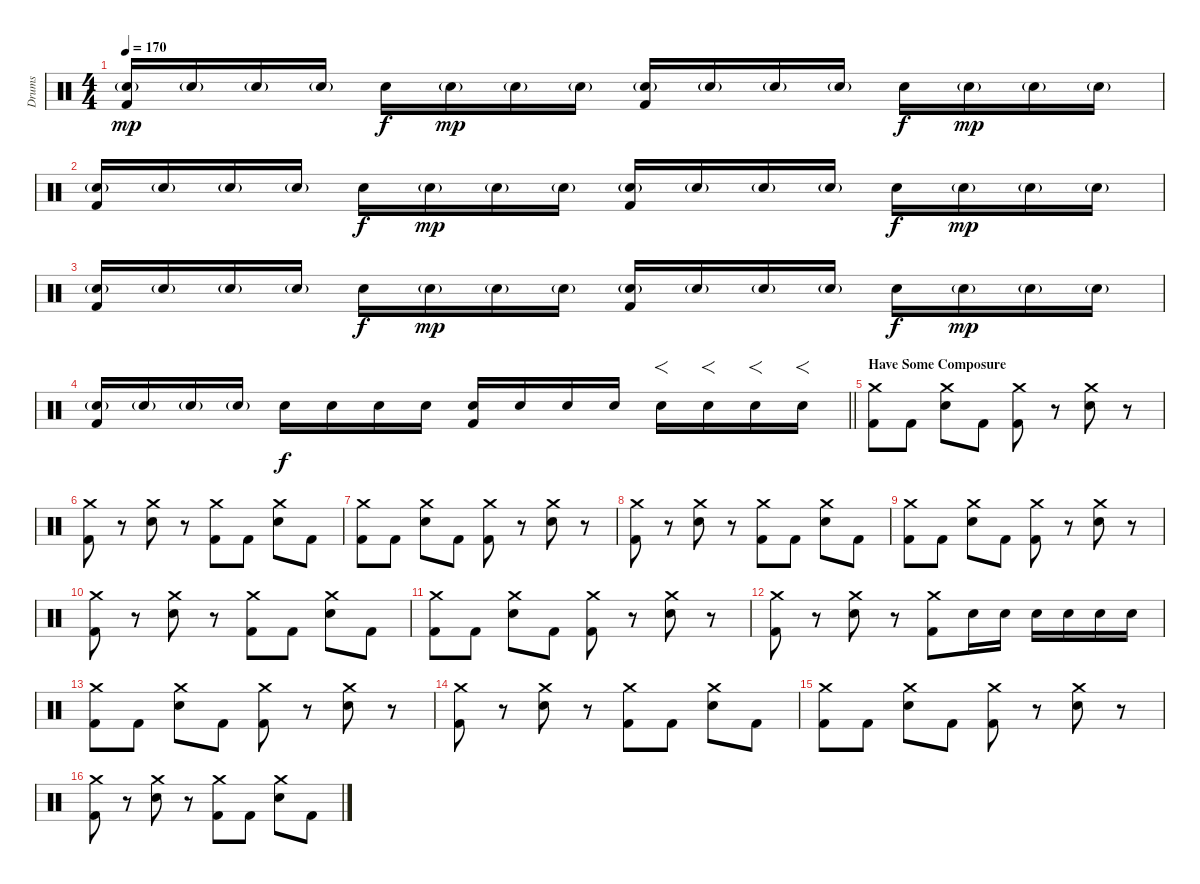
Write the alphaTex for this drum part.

\track ("Drums" "Drums") {instrument percussion}
\staff {score}
\articulation defaults
\ts (4 4)
\tempo 170
\clef neutral
\ks c
("Electric Snare (hit)"{g} "Kick (hit) 2").16{dy mp} "Electric Snare (hit)"{g}.16 "Electric Snare (hit)"{g}.16 "Electric Snare (hit)"{g}.16 "Electric Snare (hit)".16{dy f} "Electric Snare (hit)"{g}.16{dy mp} "Electric Snare (hit)"{g}.16 "Electric Snare (hit)"{g}.16 ("Electric Snare (hit)"{g} "Kick (hit) 2").16 "Electric Snare (hit)"{g}.16 "Electric Snare (hit)"{g}.16 "Electric Snare (hit)"{g}.16 "Electric Snare (hit)".16{dy f} "Electric Snare (hit)"{g}.16{dy mp} "Electric Snare (hit)"{g}.16 "Electric Snare (hit)"{g}.16 |
("Electric Snare (hit)"{g} "Kick (hit) 2").16 "Electric Snare (hit)"{g}.16 "Electric Snare (hit)"{g}.16 "Electric Snare (hit)"{g}.16 "Electric Snare (hit)".16{dy f} "Electric Snare (hit)"{g}.16{dy mp} "Electric Snare (hit)"{g}.16 "Electric Snare (hit)"{g}.16 ("Electric Snare (hit)"{g} "Kick (hit) 2").16 "Electric Snare (hit)"{g}.16 "Electric Snare (hit)"{g}.16 "Electric Snare (hit)"{g}.16 "Electric Snare (hit)".16{dy f} "Electric Snare (hit)"{g}.16{dy mp} "Electric Snare (hit)"{g}.16 "Electric Snare (hit)"{g}.16 |
("Electric Snare (hit)"{g} "Kick (hit) 2").16 "Electric Snare (hit)"{g}.16 "Electric Snare (hit)"{g}.16 "Electric Snare (hit)"{g}.16 "Electric Snare (hit)".16{dy f} "Electric Snare (hit)"{g}.16{dy mp} "Electric Snare (hit)"{g}.16 "Electric Snare (hit)"{g}.16 ("Electric Snare (hit)"{g} "Kick (hit) 2").16 "Electric Snare (hit)"{g}.16 "Electric Snare (hit)"{g}.16 "Electric Snare (hit)"{g}.16 "Electric Snare (hit)".16{dy f} "Electric Snare (hit)"{g}.16{dy mp} "Electric Snare (hit)"{g}.16 "Electric Snare (hit)"{g}.16 |
\barLineRight lightlight
("Electric Snare (hit)"{g} "Kick (hit) 2").16 "Electric Snare (hit)"{g}.16 "Electric Snare (hit)"{g}.16 "Electric Snare (hit)"{g}.16 "Electric Snare (hit)".16{dy f} "Electric Snare (hit)".16 "Electric Snare (hit)".16 "Electric Snare (hit)".16 ("Electric Snare (hit)" "Kick (hit) 2").16 "Electric Snare (hit)".16 "Electric Snare (hit)".16 "Electric Snare (hit)".16 "Electric Snare (hit)".16{f} "Electric Snare (hit)".16{f} "Electric Snare (hit)".16{f} "Electric Snare (hit)".16{f} |
\section ("" "Have Some Composure")
("Crash medium (hit)" "Kick (hit) 2").8 "Kick (hit) 2".8 ("Crash medium (hit)" "Electric Snare (hit)").8 "Kick (hit) 2".8 ("Crash medium (hit)" "Kick (hit) 2").8 r.8 ("Crash medium (hit)" "Electric Snare (hit)").8 r.8 |
("Crash medium (hit)" "Kick (hit) 2").8 r.8 ("Crash medium (hit)" "Electric Snare (hit)").8 r.8 ("Crash medium (hit)" "Kick (hit) 2").8 "Kick (hit) 2".8 ("Crash medium (hit)" "Electric Snare (hit)").8 "Kick (hit) 2".8 |
("Crash medium (hit)" "Kick (hit) 2").8 "Kick (hit) 2".8 ("Crash medium (hit)" "Electric Snare (hit)").8 "Kick (hit) 2".8 ("Crash medium (hit)" "Kick (hit) 2").8 r.8 ("Crash medium (hit)" "Electric Snare (hit)").8 r.8 |
("Crash medium (hit)" "Kick (hit) 2").8 r.8 ("Crash medium (hit)" "Electric Snare (hit)").8 r.8 ("Crash medium (hit)" "Kick (hit) 2").8 "Kick (hit) 2".8 ("Crash medium (hit)" "Electric Snare (hit)").8 "Kick (hit) 2".8 |
("Crash medium (hit)" "Kick (hit) 2").8 "Kick (hit) 2".8 ("Crash medium (hit)" "Electric Snare (hit)").8 "Kick (hit) 2".8 ("Crash medium (hit)" "Kick (hit) 2").8 r.8 ("Crash medium (hit)" "Electric Snare (hit)").8 r.8 |
("Crash medium (hit)" "Kick (hit) 2").8 r.8 ("Crash medium (hit)" "Electric Snare (hit)").8 r.8 ("Crash medium (hit)" "Kick (hit) 2").8 "Kick (hit) 2".8 ("Crash medium (hit)" "Electric Snare (hit)").8 "Kick (hit) 2".8 |
("Crash medium (hit)" "Kick (hit) 2").8 "Kick (hit) 2".8 ("Crash medium (hit)" "Electric Snare (hit)").8 "Kick (hit) 2".8 ("Crash medium (hit)" "Kick (hit) 2").8 r.8 ("Crash medium (hit)" "Electric Snare (hit)").8 r.8 |
("Crash medium (hit)" "Kick (hit) 2").8 r.8 ("Crash medium (hit)" "Electric Snare (hit)").8 r.8 ("Crash medium (hit)" "Kick (hit) 2").8 "Electric Snare (hit)".16 "Electric Snare (hit)".16 "Electric Snare (hit)".16 "Electric Snare (hit)".16 "Electric Snare (hit)".16 "Electric Snare (hit)".16 |
("Crash medium (hit)" "Kick (hit) 2").8 "Kick (hit) 2".8 ("Crash medium (hit)" "Electric Snare (hit)").8 "Kick (hit) 2".8 ("Crash medium (hit)" "Kick (hit) 2").8 r.8 ("Crash medium (hit)" "Electric Snare (hit)").8 r.8 |
("Crash medium (hit)" "Kick (hit) 2").8 r.8 ("Crash medium (hit)" "Electric Snare (hit)").8 r.8 ("Crash medium (hit)" "Kick (hit) 2").8 "Kick (hit) 2".8 ("Crash medium (hit)" "Electric Snare (hit)").8 "Kick (hit) 2".8 |
("Crash medium (hit)" "Kick (hit) 2").8 "Kick (hit) 2".8 ("Crash medium (hit)" "Electric Snare (hit)").8 "Kick (hit) 2".8 ("Crash medium (hit)" "Kick (hit) 2").8 r.8 ("Crash medium (hit)" "Electric Snare (hit)").8 r.8 |
("Crash medium (hit)" "Kick (hit) 2").8 r.8 ("Crash medium (hit)" "Electric Snare (hit)").8 r.8 ("Crash medium (hit)" "Kick (hit) 2").8 "Kick (hit) 2".8 ("Crash medium (hit)" "Electric Snare (hit)").8 "Kick (hit) 2".8
